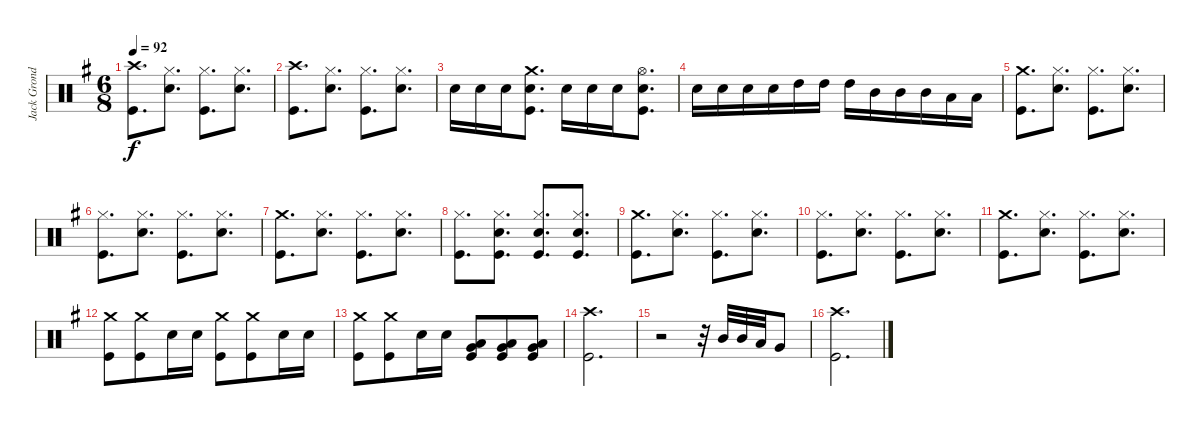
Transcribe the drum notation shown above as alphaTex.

\track ("Jack Grondin Drums" "Jack Grond") {instrument percussion}
\staff {score}
\articulation defaults
\ts (6 8)
\tempo 92
\clef neutral
\ks g
("Crash high (hit)" "Kick (hit)").8{d dy f} ("Hi-Hat (closed)" "Snare (hit) 2").8{d} ("Hi-Hat (closed)" "Kick (hit)").8{d} ("Hi-Hat (closed)" "Snare (hit) 2").8{d} |
("Crash high (hit)" "Kick (hit)").8{d} ("Hi-Hat (closed)" "Snare (hit) 2").8{d} ("Hi-Hat (closed)" "Kick (hit)").8{d} ("Hi-Hat (closed)" "Snare (hit) 2").8{d} |
"Snare (hit) 2".16 "Snare (hit) 2".16 "Snare (hit) 2".16 ("Crash medium (hit)" "Snare (hit) 2" "Kick (hit)").8{d} "Snare (hit) 2".16 "Snare (hit) 2".16 "Snare (hit) 2".16 ("Hi-Hat (open)" "Snare (hit) 2" "Kick (hit)").8{d} |
"Snare (hit) 2".16 "Snare (hit) 2".16 "Snare (hit) 2".16 "Snare (hit) 2".16 "High Tom (hit)".16 "High Tom (hit)".16 "High Tom (hit)".16 "Mid Tom (hit)".16 "Mid Tom (hit)".16 "Mid Tom (hit)".16 "Low Tom (hit)".16 "Low Tom (hit)".16 |
("Crash medium (hit)" "Kick (hit)").8{d} ("Hi-Hat (closed)" "Snare (hit) 2").8{d} ("Hi-Hat (closed)" "Kick (hit)").8{d} ("Hi-Hat (closed)" "Snare (hit) 2").8{d} |
("Hi-Hat (closed)" "Kick (hit)").8{d} ("Hi-Hat (closed)" "Snare (hit) 2").8{d} ("Hi-Hat (closed)" "Kick (hit)").8{d} ("Hi-Hat (closed)" "Snare (hit) 2").8{d} |
("Crash medium (hit)" "Kick (hit)").8{d} ("Hi-Hat (closed)" "Snare (hit) 2").8{d} ("Hi-Hat (closed)" "Kick (hit)").8{d} ("Hi-Hat (closed)" "Snare (hit) 2").8{d} |
("Hi-Hat (closed)" "Kick (hit)").8{d} ("Hi-Hat (closed)" "Snare (hit) 2" "Kick (hit)").8{d} ("Hi-Hat (closed)" "Snare (hit) 2" "Kick (hit)").8{d} ("Hi-Hat (closed)" "Snare (hit) 2" "Kick (hit)").8{d} |
("Crash medium (hit)" "Kick (hit)").8{d} ("Hi-Hat (closed)" "Snare (hit) 2").8{d} ("Hi-Hat (closed)" "Kick (hit)").8{d} ("Hi-Hat (closed)" "Snare (hit) 2").8{d} |
("Hi-Hat (closed)" "Kick (hit)").8{d} ("Hi-Hat (closed)" "Snare (hit) 2").8{d} ("Hi-Hat (closed)" "Kick (hit)").8{d} ("Hi-Hat (closed)" "Snare (hit) 2").8{d} |
("Crash medium (hit)" "Kick (hit)").8{d} ("Hi-Hat (closed)" "Snare (hit) 2").8{d} ("Hi-Hat (closed)" "Kick (hit)").8{d} ("Hi-Hat (closed)" "Snare (hit) 2").8{d} |
("Crash medium (hit)" "Kick (hit)").8 ("Crash medium (hit)" "Kick (hit)").8 "Snare (hit) 2".16 "Snare (hit) 2".16 ("Crash medium (hit)" "Kick (hit)").8 ("Crash medium (hit)" "Kick (hit)").8 "Snare (hit) 2".16 "Snare (hit) 2".16 |
("Crash medium (hit)" "Kick (hit)").8 ("Crash medium (hit)" "Kick (hit)").8 "Snare (hit) 2".16 "Snare (hit) 2".16 ("Very Low Tom (hit)" "Low Floor Tom (hit)" "Kick (hit)").8 ("Very Low Tom (hit)" "Low Floor Tom (hit)" "Kick (hit)").8 ("Very Low Tom (hit)" "Low Floor Tom (hit)" "Kick (hit)").8 |
("Crash high (hit)" "Kick (hit)").2{d} |
r.2 r.32 "Mid Tom (hit)".32 "Mid Tom (hit)".32 "Low Tom (hit)".32 "Very Low Tom (hit)".8 |
("Crash high (hit)" "Kick (hit)").2{d}
